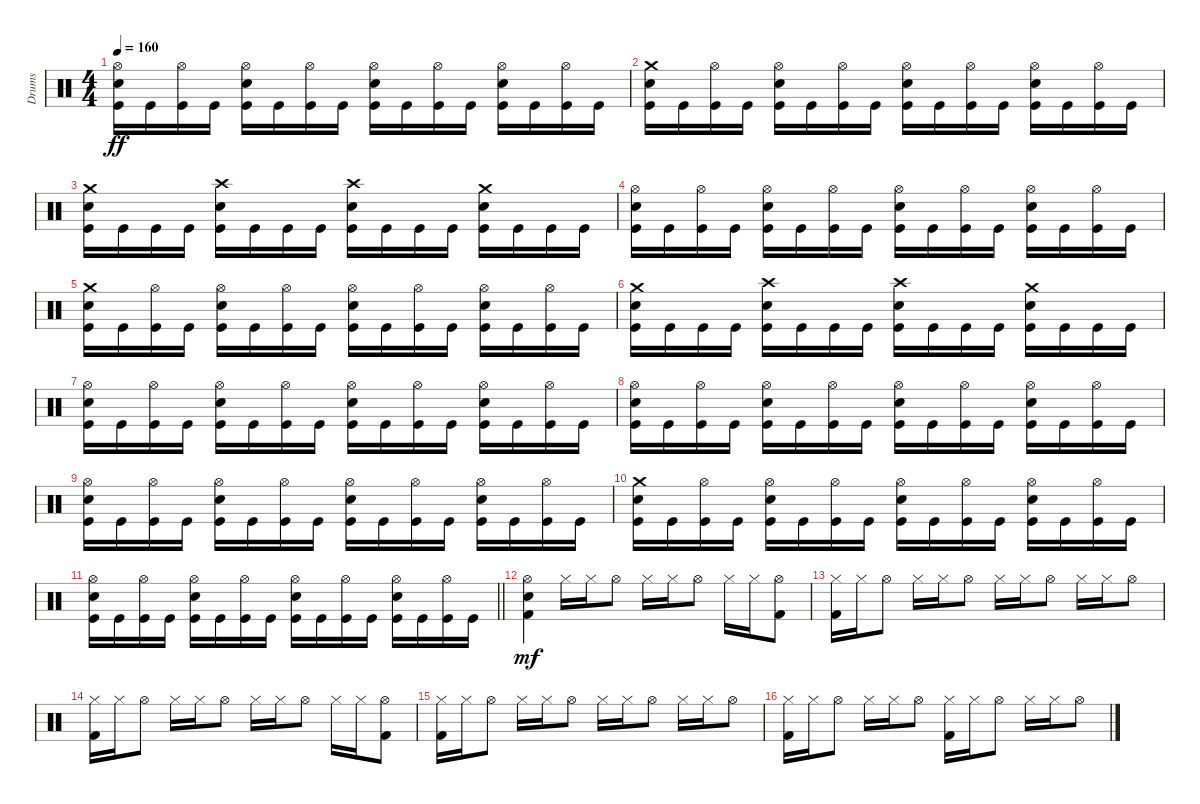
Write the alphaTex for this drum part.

\track ("Drums" "Drums") {instrument percussion bank 127}
\staff {score}
\articulation defaults
\ts (4 4)
\tempo 160
\clef neutral
\ks c
("Hi-Hat (open)" "Snare (hit) 2" "Kick (hit)").16{dy ff} "Kick (hit)".16 ("Hi-Hat (open)" "Kick (hit)").16 "Kick (hit)".16 ("Hi-Hat (open)" "Snare (hit) 2" "Kick (hit)").16 "Kick (hit)".16 ("Hi-Hat (open)" "Kick (hit)").16 "Kick (hit)".16 ("Hi-Hat (open)" "Snare (hit) 2" "Kick (hit)").16 "Kick (hit)".16 ("Hi-Hat (open)" "Kick (hit)").16 "Kick (hit)".16 ("Hi-Hat (open)" "Snare (hit) 2" "Kick (hit)").16 "Kick (hit)".16 ("Hi-Hat (open)" "Kick (hit)").16 "Kick (hit)".16 |
("Crash medium (hit)" "Snare (hit) 2" "Kick (hit)").16 "Kick (hit)".16 ("Hi-Hat (open)" "Kick (hit)").16 "Kick (hit)".16 ("Hi-Hat (open)" "Snare (hit) 2" "Kick (hit)").16 "Kick (hit)".16 ("Hi-Hat (open)" "Kick (hit)").16 "Kick (hit)".16 ("Hi-Hat (open)" "Snare (hit) 2" "Kick (hit)").16 "Kick (hit)".16 ("Hi-Hat (open)" "Kick (hit)").16 "Kick (hit)".16 ("Hi-Hat (open)" "Snare (hit) 2" "Kick (hit)").16 "Kick (hit)".16 ("Hi-Hat (open)" "Kick (hit)").16 "Kick (hit)".16 |
("Crash medium (hit)" "Snare (hit) 2" "Kick (hit)").16 "Kick (hit)".16 "Kick (hit)".16 "Kick (hit)".16 ("Crash high (hit)" "Snare (hit) 2" "Kick (hit)").16 "Kick (hit)".16 "Kick (hit)".16 "Kick (hit)".16 ("Crash high (hit)" "Snare (hit) 2" "Kick (hit)").16 "Kick (hit)".16 "Kick (hit)".16 "Kick (hit)".16 ("Crash medium (hit)" "Snare (hit) 2" "Kick (hit)").16 "Kick (hit)".16 "Kick (hit)".16 "Kick (hit)".16 |
("Hi-Hat (open)" "Snare (hit) 2" "Kick (hit)").16 "Kick (hit)".16 ("Hi-Hat (open)" "Kick (hit)").16 "Kick (hit)".16 ("Hi-Hat (open)" "Snare (hit) 2" "Kick (hit)").16 "Kick (hit)".16 ("Hi-Hat (open)" "Kick (hit)").16 "Kick (hit)".16 ("Hi-Hat (open)" "Snare (hit) 2" "Kick (hit)").16 "Kick (hit)".16 ("Hi-Hat (open)" "Kick (hit)").16 "Kick (hit)".16 ("Hi-Hat (open)" "Snare (hit) 2" "Kick (hit)").16 "Kick (hit)".16 ("Hi-Hat (open)" "Kick (hit)").16 "Kick (hit)".16 |
("Crash medium (hit)" "Snare (hit) 2" "Kick (hit)").16 "Kick (hit)".16 ("Hi-Hat (open)" "Kick (hit)").16 "Kick (hit)".16 ("Hi-Hat (open)" "Snare (hit) 2" "Kick (hit)").16 "Kick (hit)".16 ("Hi-Hat (open)" "Kick (hit)").16 "Kick (hit)".16 ("Hi-Hat (open)" "Snare (hit) 2" "Kick (hit)").16 "Kick (hit)".16 ("Hi-Hat (open)" "Kick (hit)").16 "Kick (hit)".16 ("Hi-Hat (open)" "Snare (hit) 2" "Kick (hit)").16 "Kick (hit)".16 ("Hi-Hat (open)" "Kick (hit)").16 "Kick (hit)".16 |
("Crash medium (hit)" "Snare (hit) 2" "Kick (hit)").16 "Kick (hit)".16 "Kick (hit)".16 "Kick (hit)".16 ("Crash high (hit)" "Snare (hit) 2" "Kick (hit)").16 "Kick (hit)".16 "Kick (hit)".16 "Kick (hit)".16 ("Crash high (hit)" "Snare (hit) 2" "Kick (hit)").16 "Kick (hit)".16 "Kick (hit)".16 "Kick (hit)".16 ("Crash medium (hit)" "Snare (hit) 2" "Kick (hit)").16 "Kick (hit)".16 "Kick (hit)".16 "Kick (hit)".16 |
("Hi-Hat (open)" "Snare (hit) 2" "Kick (hit)").16 "Kick (hit)".16 ("Hi-Hat (open)" "Kick (hit)").16 "Kick (hit)".16 ("Hi-Hat (open)" "Snare (hit) 2" "Kick (hit)").16 "Kick (hit)".16 ("Hi-Hat (open)" "Kick (hit)").16 "Kick (hit)".16 ("Hi-Hat (open)" "Snare (hit) 2" "Kick (hit)").16 "Kick (hit)".16 ("Hi-Hat (open)" "Kick (hit)").16 "Kick (hit)".16 ("Hi-Hat (open)" "Snare (hit) 2" "Kick (hit)").16 "Kick (hit)".16 ("Hi-Hat (open)" "Kick (hit)").16 "Kick (hit)".16 |
("Hi-Hat (open)" "Snare (hit) 2" "Kick (hit)").16 "Kick (hit)".16 ("Hi-Hat (open)" "Kick (hit)").16 "Kick (hit)".16 ("Hi-Hat (open)" "Snare (hit) 2" "Kick (hit)").16 "Kick (hit)".16 ("Hi-Hat (open)" "Kick (hit)").16 "Kick (hit)".16 ("Hi-Hat (open)" "Snare (hit) 2" "Kick (hit)").16 "Kick (hit)".16 ("Hi-Hat (open)" "Kick (hit)").16 "Kick (hit)".16 ("Hi-Hat (open)" "Snare (hit) 2" "Kick (hit)").16 "Kick (hit)".16 ("Hi-Hat (open)" "Kick (hit)").16 "Kick (hit)".16 |
("Hi-Hat (open)" "Snare (hit) 2" "Kick (hit)").16 "Kick (hit)".16 ("Hi-Hat (open)" "Kick (hit)").16 "Kick (hit)".16 ("Hi-Hat (open)" "Snare (hit) 2" "Kick (hit)").16 "Kick (hit)".16 ("Hi-Hat (open)" "Kick (hit)").16 "Kick (hit)".16 ("Hi-Hat (open)" "Snare (hit) 2" "Kick (hit)").16 "Kick (hit)".16 ("Hi-Hat (open)" "Kick (hit)").16 "Kick (hit)".16 ("Hi-Hat (open)" "Snare (hit) 2" "Kick (hit)").16 "Kick (hit)".16 ("Hi-Hat (open)" "Kick (hit)").16 "Kick (hit)".16 |
("Crash medium (hit)" "Snare (hit) 2" "Kick (hit)").16 "Kick (hit)".16 ("Hi-Hat (open)" "Kick (hit)").16 "Kick (hit)".16 ("Hi-Hat (open)" "Snare (hit) 2" "Kick (hit)").16 "Kick (hit)".16 ("Hi-Hat (open)" "Kick (hit)").16 "Kick (hit)".16 ("Hi-Hat (open)" "Snare (hit) 2" "Kick (hit)").16 "Kick (hit)".16 ("Hi-Hat (open)" "Kick (hit)").16 "Kick (hit)".16 ("Hi-Hat (open)" "Snare (hit) 2" "Kick (hit)").16 "Kick (hit)".16 ("Hi-Hat (open)" "Kick (hit)").16 "Kick (hit)".16 |
\barLineRight lightlight
("Hi-Hat (open)" "Snare (hit) 2" "Kick (hit)").16 "Kick (hit)".16 ("Hi-Hat (open)" "Kick (hit)").16 "Kick (hit)".16 ("Hi-Hat (open)" "Snare (hit) 2" "Kick (hit)").16 "Kick (hit)".16 ("Hi-Hat (open)" "Kick (hit)").16 "Kick (hit)".16 ("Hi-Hat (open)" "Snare (hit) 2" "Kick (hit)").16 "Kick (hit)".16 ("Hi-Hat (open)" "Kick (hit)").16 "Kick (hit)".16 ("Hi-Hat (open)" "Snare (hit) 2" "Kick (hit)").16 "Kick (hit)".16 ("Hi-Hat (open)" "Kick (hit)").16 "Kick (hit)".16 |
("Hi-Hat (open)" "Snare (hit) 2" "Kick (hit) 2").4{dy mf} "Hi-Hat (closed)".16 "Hi-Hat (closed)".16 "Hi-Hat (open)".8 "Hi-Hat (closed)".16 "Hi-Hat (closed)".16 "Hi-Hat (open)".8 "Hi-Hat (closed)".16 "Hi-Hat (closed)".16 ("Hi-Hat (open)" "Kick (hit) 2").8 |
("Hi-Hat (closed)" "Kick (hit) 2").16 "Hi-Hat (closed)".16 "Hi-Hat (open)".8 "Hi-Hat (closed)".16 "Hi-Hat (closed)".16 "Hi-Hat (open)".8 "Hi-Hat (closed)".16 "Hi-Hat (closed)".16 "Hi-Hat (open)".8 "Hi-Hat (closed)".16 "Hi-Hat (closed)".16 "Hi-Hat (open)".8 |
("Hi-Hat (closed)" "Kick (hit) 2").16 "Hi-Hat (closed)".16 "Hi-Hat (open)".8 "Hi-Hat (closed)".16 "Hi-Hat (closed)".16 "Hi-Hat (open)".8 "Hi-Hat (closed)".16 "Hi-Hat (closed)".16 "Hi-Hat (open)".8 "Hi-Hat (closed)".16 "Hi-Hat (closed)".16 ("Hi-Hat (open)" "Kick (hit) 2").8 |
("Hi-Hat (closed)" "Kick (hit) 2").16 "Hi-Hat (closed)".16 "Hi-Hat (open)".8 "Hi-Hat (closed)".16 "Hi-Hat (closed)".16 "Hi-Hat (open)".8 "Hi-Hat (closed)".16 "Hi-Hat (closed)".16 "Hi-Hat (open)".8 "Hi-Hat (closed)".16 "Hi-Hat (closed)".16 "Hi-Hat (open)".8 |
("Hi-Hat (closed)" "Kick (hit) 2").16 "Hi-Hat (closed)".16 "Hi-Hat (open)".8 "Hi-Hat (closed)".16 "Hi-Hat (closed)".16 "Hi-Hat (open)".8 ("Hi-Hat (closed)" "Kick (hit) 2").16 "Hi-Hat (closed)".16 "Hi-Hat (open)".8 "Hi-Hat (closed)".16 "Hi-Hat (closed)".16 "Hi-Hat (open)".8
